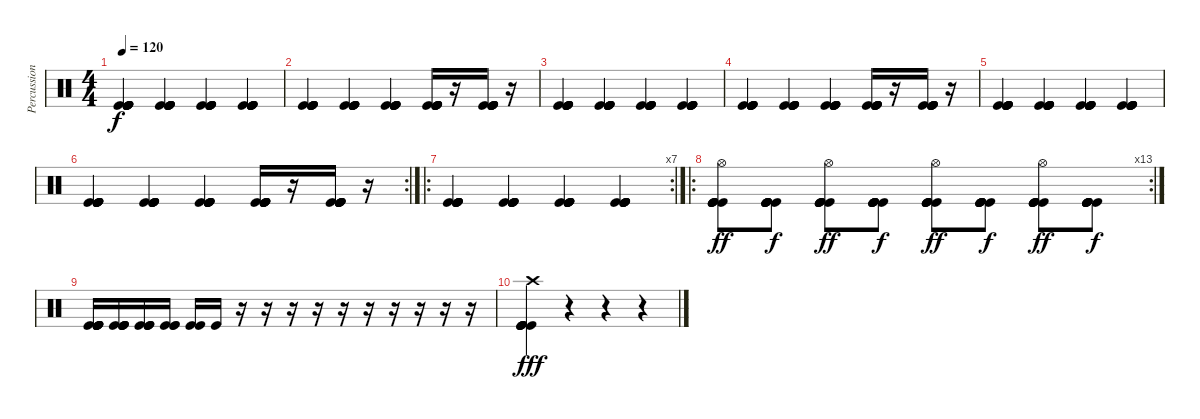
\track ("Percussion" "Percussion") {instrument percussion}
\staff {score}
\articulation defaults
\ts (4 4)
\tempo 120
\clef neutral
\ks c
("Kick (hit)" "Kick (hit)" "Kick (hit)" "Kick (hit)" "Kick (hit)" "Kick (hit)").4{dy f} ("Kick (hit)" "Kick (hit)" "Kick (hit)" "Kick (hit)" "Kick (hit)" "Kick (hit)").4 ("Kick (hit)" "Kick (hit)" "Kick (hit)" "Kick (hit)" "Kick (hit)" "Kick (hit)").4 ("Kick (hit)" "Kick (hit)" "Kick (hit)" "Kick (hit)" "Kick (hit)" "Kick (hit)").4 |
("Kick (hit)" "Kick (hit)" "Kick (hit)" "Kick (hit)" "Kick (hit)" "Kick (hit)").4 ("Kick (hit)" "Kick (hit)" "Kick (hit)" "Kick (hit)" "Kick (hit)" "Kick (hit)").4 ("Kick (hit)" "Kick (hit)" "Kick (hit)" "Kick (hit)" "Kick (hit)" "Kick (hit)").4 ("Kick (hit)" "Kick (hit)" "Kick (hit)" "Kick (hit)" "Kick (hit)" "Kick (hit)").16 r.16 ("Kick (hit)" "Kick (hit)" "Kick (hit)" "Kick (hit)" "Kick (hit)" "Kick (hit)").16 r.16 |
("Kick (hit)" "Kick (hit)" "Kick (hit)" "Kick (hit)" "Kick (hit)" "Kick (hit)").4 ("Kick (hit)" "Kick (hit)" "Kick (hit)" "Kick (hit)" "Kick (hit)" "Kick (hit)").4 ("Kick (hit)" "Kick (hit)" "Kick (hit)" "Kick (hit)" "Kick (hit)" "Kick (hit)").4 ("Kick (hit)" "Kick (hit)" "Kick (hit)" "Kick (hit)" "Kick (hit)" "Kick (hit)").4 |
("Kick (hit)" "Kick (hit)" "Kick (hit)" "Kick (hit)" "Kick (hit)" "Kick (hit)").4 ("Kick (hit)" "Kick (hit)" "Kick (hit)" "Kick (hit)" "Kick (hit)" "Kick (hit)").4 ("Kick (hit)" "Kick (hit)" "Kick (hit)" "Kick (hit)" "Kick (hit)" "Kick (hit)").4 ("Kick (hit)" "Kick (hit)" "Kick (hit)" "Kick (hit)" "Kick (hit)" "Kick (hit)").16 r.16 ("Kick (hit)" "Kick (hit)" "Kick (hit)" "Kick (hit)" "Kick (hit)" "Kick (hit)").16 r.16 |
("Kick (hit)" "Kick (hit)" "Kick (hit)" "Kick (hit)" "Kick (hit)" "Kick (hit)").4 ("Kick (hit)" "Kick (hit)" "Kick (hit)" "Kick (hit)" "Kick (hit)" "Kick (hit)").4 ("Kick (hit)" "Kick (hit)" "Kick (hit)" "Kick (hit)" "Kick (hit)" "Kick (hit)").4 ("Kick (hit)" "Kick (hit)" "Kick (hit)" "Kick (hit)" "Kick (hit)" "Kick (hit)").4 |
\rc 2
("Kick (hit)" "Kick (hit)" "Kick (hit)" "Kick (hit)" "Kick (hit)" "Kick (hit)").4 ("Kick (hit)" "Kick (hit)" "Kick (hit)" "Kick (hit)" "Kick (hit)" "Kick (hit)").4 ("Kick (hit)" "Kick (hit)" "Kick (hit)" "Kick (hit)" "Kick (hit)" "Kick (hit)").4 ("Kick (hit)" "Kick (hit)" "Kick (hit)" "Kick (hit)" "Kick (hit)" "Kick (hit)").16 r.16 ("Kick (hit)" "Kick (hit)" "Kick (hit)" "Kick (hit)" "Kick (hit)" "Kick (hit)").16 r.16 |
\ro
\rc 7
("Kick (hit)" "Kick (hit)" "Kick (hit)" "Kick (hit)" "Kick (hit)" "Kick (hit)").4 ("Kick (hit)" "Kick (hit)" "Kick (hit)" "Kick (hit)" "Kick (hit)" "Kick (hit)").4 ("Kick (hit)" "Kick (hit)" "Kick (hit)" "Kick (hit)" "Kick (hit)" "Kick (hit)").4 ("Kick (hit)" "Kick (hit)" "Kick (hit)" "Kick (hit)" "Kick (hit)" "Kick (hit)").4 |
\ro
\rc 13
("Hi-Hat (open)" "Kick (hit)" "Kick (hit)" "Kick (hit)" "Kick (hit)" "Kick (hit)").8{dy ff} ("Kick (hit)" "Kick (hit)" "Kick (hit)" "Kick (hit)" "Kick (hit)" "Kick (hit)").8{dy f} ("Hi-Hat (open)" "Kick (hit)" "Kick (hit)" "Kick (hit)" "Kick (hit)" "Kick (hit)").8{dy ff} ("Kick (hit)" "Kick (hit)" "Kick (hit)" "Kick (hit)" "Kick (hit)" "Kick (hit)").8{dy f} ("Hi-Hat (open)" "Kick (hit)" "Kick (hit)" "Kick (hit)" "Kick (hit)" "Kick (hit)").8{dy ff} ("Kick (hit)" "Kick (hit)" "Kick (hit)" "Kick (hit)" "Kick (hit)" "Kick (hit)").8{dy f} ("Hi-Hat (open)" "Kick (hit)" "Kick (hit)" "Kick (hit)" "Kick (hit)" "Kick (hit)").8{dy ff} ("Kick (hit)" "Kick (hit)" "Kick (hit)" "Kick (hit)" "Kick (hit)" "Kick (hit)").8{dy f} |
("Kick (hit)" "Kick (hit)" "Kick (hit)" "Kick (hit)" "Kick (hit)" "Kick (hit)").16 ("Kick (hit)" "Kick (hit)" "Kick (hit)" "Kick (hit)" "Kick (hit)").16 ("Kick (hit)" "Kick (hit)" "Kick (hit)" "Kick (hit)").16 ("Kick (hit)" "Kick (hit)" "Kick (hit)").16 ("Kick (hit)" "Kick (hit)").16 "Kick (hit)".16 r.16 r.16 r.16 r.16 r.16 r.16 r.16 r.16 r.16 r.16 |
("Crash high (hit)" "Kick (hit)" "Kick (hit)" "Kick (hit)" "Kick (hit)" "Kick (hit)").4{dy fff} r.4 r.4 r.4
